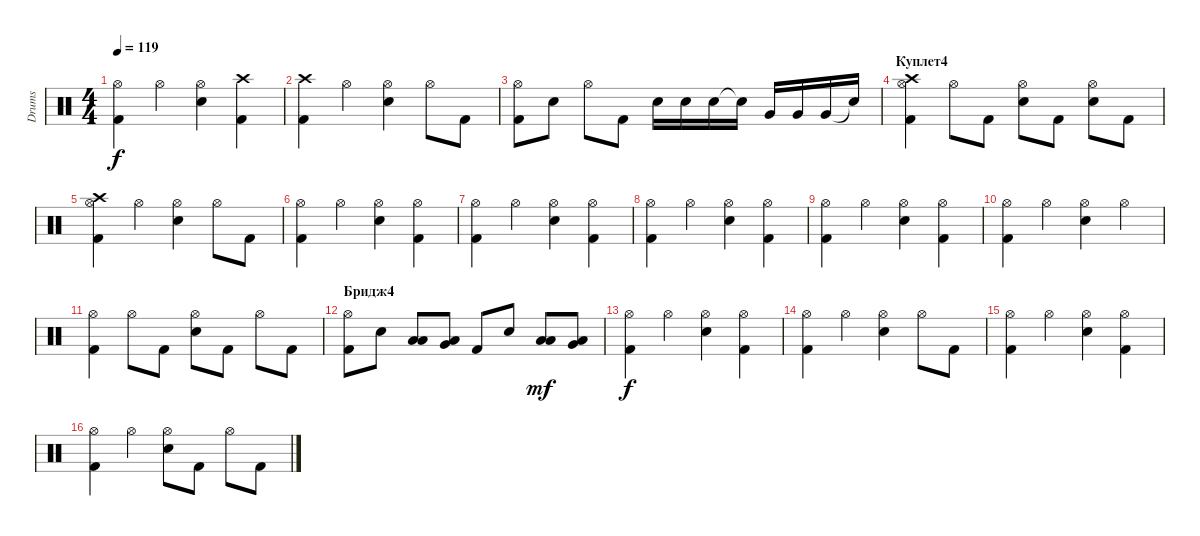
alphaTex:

\track ("Drums" "Drums") {instrument percussion}
\staff {score}
\articulation defaults
\ts (4 4)
\tempo 119
\clef neutral
\ks c
("Kick (hit) 2" "Hi-Hat (open)").4{dy f} "Hi-Hat (open)".4 ("Electric Snare (hit)" "Hi-Hat (open)").4 ("Kick (hit) 2" "Crash high (hit)").4 |
("Kick (hit) 2" "Crash high (hit)").4 "Hi-Hat (open)".4 ("Electric Snare (hit)" "Hi-Hat (open)").4 "Hi-Hat (open)".8 "Kick (hit) 2".8 |
("Kick (hit) 2" "Hi-Hat (open)").8 "Electric Snare (hit)".8 "Hi-Hat (open)".8 "Kick (hit) 2".8 "Electric Snare (hit)".16 "Electric Snare (hit)".16 "Electric Snare (hit)".16 "Snare (hit)"{t}.16 "Very Low Tom (hit)".16 "Very Low Tom (hit)".16 "Very Low Tom (hit)".16 "Snare (hit)"{t}.16 |
\section ("" "Куплет4")
("Kick (hit) 2" "Hi-Hat (open)" "Crash high (hit)").4 "Hi-Hat (open)".8 "Kick (hit) 2".8 ("Electric Snare (hit)" "Hi-Hat (open)").8 "Kick (hit) 2".8 ("Electric Snare (hit)" "Hi-Hat (open)").8 "Kick (hit) 2".8 |
("Kick (hit) 2" "Hi-Hat (open)" "Crash high (hit)").4 "Hi-Hat (open)".4 ("Electric Snare (hit)" "Hi-Hat (open)").4 "Hi-Hat (open)".8 "Kick (hit) 2".8 |
("Kick (hit) 2" "Hi-Hat (open)").4 "Hi-Hat (open)".4 ("Electric Snare (hit)" "Hi-Hat (open)").4 ("Kick (hit) 2" "Hi-Hat (open)").4 |
("Kick (hit) 2" "Hi-Hat (open)").4 "Hi-Hat (open)".4 ("Electric Snare (hit)" "Hi-Hat (open)").4 ("Kick (hit) 2" "Hi-Hat (open)").4 |
("Kick (hit) 2" "Hi-Hat (open)").4 "Hi-Hat (open)".4 ("Electric Snare (hit)" "Hi-Hat (open)").4 ("Kick (hit) 2" "Hi-Hat (open)").4 |
("Kick (hit) 2" "Hi-Hat (open)").4 "Hi-Hat (open)".4 ("Electric Snare (hit)" "Hi-Hat (open)").4 ("Kick (hit) 2" "Hi-Hat (open)").4 |
("Kick (hit) 2" "Hi-Hat (open)").4 "Hi-Hat (open)".4 ("Electric Snare (hit)" "Hi-Hat (open)").4 "Hi-Hat (open)".4 |
("Kick (hit) 2" "Hi-Hat (open)").4 "Hi-Hat (open)".8 "Kick (hit) 2".8 ("Electric Snare (hit)" "Hi-Hat (open)").8 "Kick (hit) 2".8 "Hi-Hat (open)".8 "Kick (hit) 2".8 |
\section ("" "Бридж4")
("Kick (hit) 2" "Hi-Hat (open)").8 "Electric Snare (hit)".8 ("Low Tom (hit)" "Low Floor Tom (hit)").8 ("Very Low Tom (hit)" "Low Floor Tom (hit)").8 "Kick (hit) 2".8 "Electric Snare (hit)".8 ("Low Tom (hit)" "Low Floor Tom (hit)").8{dy mf} ("Very Low Tom (hit)" "Low Floor Tom (hit)").8 |
("Kick (hit) 2" "Hi-Hat (open)").4{dy f} "Hi-Hat (open)".4 ("Electric Snare (hit)" "Hi-Hat (open)").4 ("Kick (hit) 2" "Hi-Hat (open)").4 |
("Kick (hit) 2" "Hi-Hat (open)").4 "Hi-Hat (open)".4 ("Electric Snare (hit)" "Hi-Hat (open)").4 "Hi-Hat (open)".8 "Kick (hit) 2".8 |
("Kick (hit) 2" "Hi-Hat (open)").4 "Hi-Hat (open)".4 ("Electric Snare (hit)" "Hi-Hat (open)").4 ("Kick (hit) 2" "Hi-Hat (open)").4 |
("Kick (hit) 2" "Hi-Hat (open)").4 "Hi-Hat (open)".4 ("Electric Snare (hit)" "Hi-Hat (open)").8 "Kick (hit) 2".8 "Hi-Hat (open)".8 "Kick (hit) 2".8
